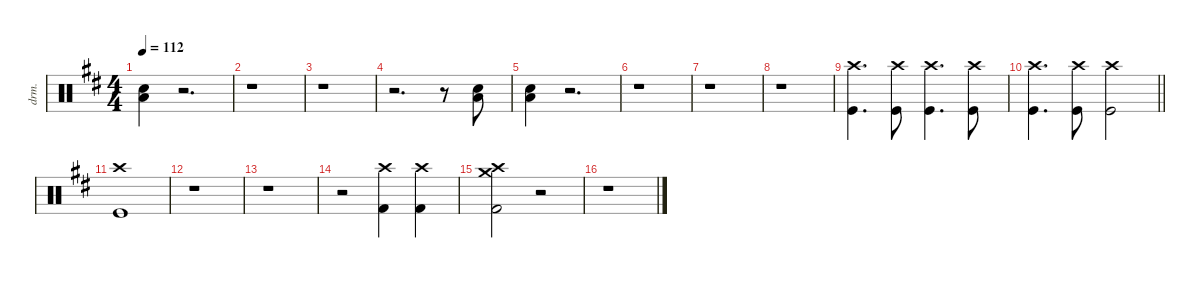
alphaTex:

\defaultSystemsLayout 4
\hideDynamics
\bracketExtendMode nobrackets
\otherSystemsTrackNameOrientation horizontal
\track ("Lars - Drums" "drm.") {defaultSystemsLayout 4 instrument percussion}
\staff {score}
\articulation defaults
\ts (4 4)
\tempo 112
\clef neutral
\ks bminor
("Low Floor Tom (hit)"{acc forcenatural} "Snare (hit) 2"{acc forcenatural}).4{dy f beam Down} r.2{d beam Down} |
r.1{beam Down} |
r.1{beam Down} |
r.2{d beam Down} r.8{beam Down} ("Low Floor Tom (hit)"{acc forcenatural} "Snare (hit) 2"{acc forcenatural}).8{beam Down} |
("Low Floor Tom (hit)"{acc forcenatural} "Snare (hit) 2"{acc forcenatural}).4{beam Down} r.2{d beam Down} |
r.1{beam Down} |
r.1{beam Down} |
r.1{beam Down} |
("Crash high (hit)"{acc forcenatural} "Kick (hit)"{acc forcenatural}).4{d beam Down} ("Crash high (hit)"{acc forcenatural} "Kick (hit)"{acc forcenatural}).8{beam Down} ("Crash high (hit)"{acc forcenatural} "Kick (hit)"{acc forcenatural}).4{d beam Down} ("Crash high (hit)"{acc forcenatural} "Kick (hit)"{acc forcenatural}).8{beam Down} |
\barLineRight lightlight
("Crash high (hit)"{acc forcenatural} "Kick (hit)"{acc forcenatural}).4{d beam Down} ("Crash high (hit)"{acc forcenatural} "Kick (hit)"{acc forcenatural}).8{beam Down} ("Crash high (hit)"{acc forcenatural} "Kick (hit)"{acc forcenatural}).2{beam Down} |
("Crash high (hit)"{acc forcenatural} "Kick (hit)"{acc forcenatural}).1{beam Down} |
r.1{beam Down} |
r.1{beam Down} |
r.2{beam Down} ("Crash high (hit)"{acc forcenatural} "Kick (hit) 2"{acc forcenatural}).4{beam Down} ("Crash high (hit)"{acc forcenatural} "Kick (hit) 2"{acc forcenatural}).4{beam Down} |
("Crash high (hit)"{acc forcenatural} "Crash medium (hit)"{acc forcenatural} "Kick (hit) 2"{acc forcenatural}).2{beam Down} r.2{beam Down} |
r.1{beam Down}
